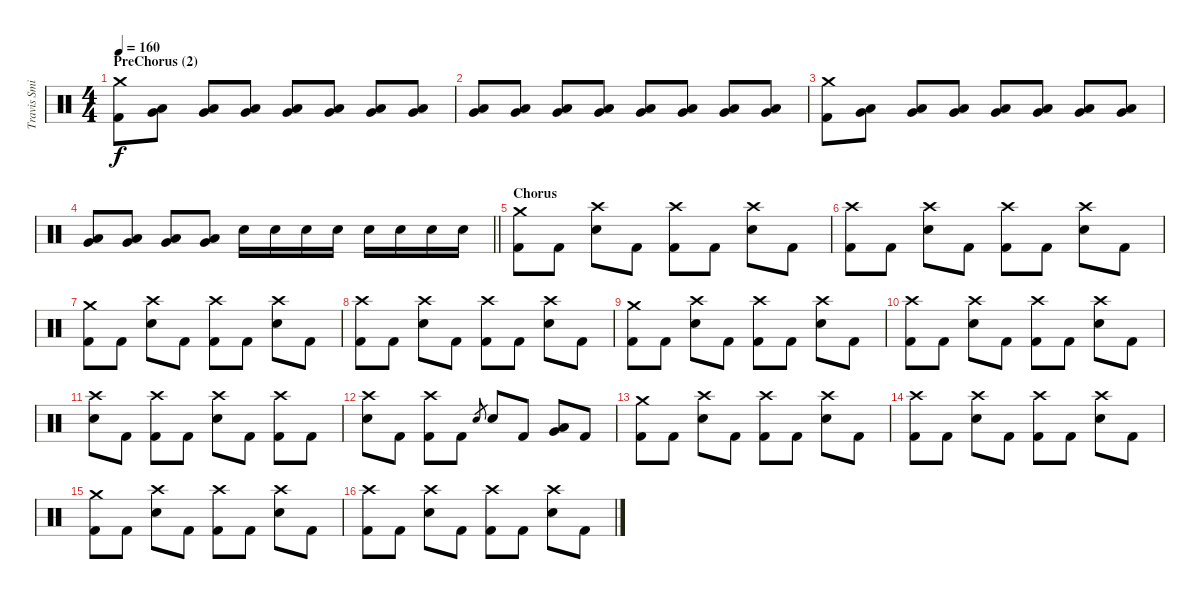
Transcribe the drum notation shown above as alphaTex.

\track ("Travis Smith" "Travis Smi") {instrument percussion}
\staff {score}
\articulation defaults
\ts (4 4)
\section ("" "PreChorus (2)")
\tempo 160
\clef neutral
\ks c
("Crash medium (hit)" "Kick (hit) 2").8{dy f} ("Low Tom (hit)" "Very Low Tom (hit)").8 ("Low Tom (hit)" "Very Low Tom (hit)").8 ("Low Tom (hit)" "Very Low Tom (hit)").8 ("Low Tom (hit)" "Very Low Tom (hit)").8 ("Low Tom (hit)" "Very Low Tom (hit)").8 ("Low Tom (hit)" "Very Low Tom (hit)").8 ("Low Tom (hit)" "Very Low Tom (hit)").8 |
("Low Tom (hit)" "Very Low Tom (hit)").8 ("Low Tom (hit)" "Very Low Tom (hit)").8 ("Low Tom (hit)" "Very Low Tom (hit)").8 ("Low Tom (hit)" "Very Low Tom (hit)").8 ("Low Tom (hit)" "Very Low Tom (hit)").8 ("Low Tom (hit)" "Very Low Tom (hit)").8 ("Low Tom (hit)" "Very Low Tom (hit)").8 ("Low Tom (hit)" "Very Low Tom (hit)").8 |
("Crash medium (hit)" "Kick (hit) 2").8 ("Low Tom (hit)" "Very Low Tom (hit)").8 ("Low Tom (hit)" "Very Low Tom (hit)").8 ("Low Tom (hit)" "Very Low Tom (hit)").8 ("Low Tom (hit)" "Very Low Tom (hit)").8 ("Low Tom (hit)" "Very Low Tom (hit)").8 ("Low Tom (hit)" "Very Low Tom (hit)").8 ("Low Tom (hit)" "Very Low Tom (hit)").8 |
\barLineRight lightlight
("Low Tom (hit)" "Very Low Tom (hit)").8 ("Low Tom (hit)" "Very Low Tom (hit)").8 ("Low Tom (hit)" "Very Low Tom (hit)").8 ("Low Tom (hit)" "Very Low Tom (hit)").8 "Electric Snare (hit)".16 "Electric Snare (hit)".16 "Electric Snare (hit)".16 "Electric Snare (hit)".16 "Electric Snare (hit)".16 "Electric Snare (hit)".16 "Electric Snare (hit)".16 "Electric Snare (hit)".16 |
\section ("" "Chorus")
("Crash medium (hit)" "Kick (hit) 2").8 "Kick (hit) 2".8 ("Crash high (hit)" "Electric Snare (hit)").8 "Kick (hit) 2".8 ("Crash high (hit)" "Kick (hit) 2").8 "Kick (hit) 2".8 ("Crash high (hit)" "Electric Snare (hit)").8 "Kick (hit) 2".8 |
("Crash high (hit)" "Kick (hit) 2").8 "Kick (hit) 2".8 ("Crash high (hit)" "Electric Snare (hit)").8 "Kick (hit) 2".8 ("Crash high (hit)" "Kick (hit) 2").8 "Kick (hit) 2".8 ("Crash high (hit)" "Electric Snare (hit)").8 "Kick (hit) 2".8 |
("Crash medium (hit)" "Kick (hit) 2").8 "Kick (hit) 2".8 ("Crash high (hit)" "Electric Snare (hit)").8 "Kick (hit) 2".8 ("Crash high (hit)" "Kick (hit) 2").8 "Kick (hit) 2".8 ("Crash high (hit)" "Electric Snare (hit)").8 "Kick (hit) 2".8 |
("Crash high (hit)" "Kick (hit) 2").8 "Kick (hit) 2".8 ("Crash high (hit)" "Electric Snare (hit)").8 "Kick (hit) 2".8 ("Crash high (hit)" "Kick (hit) 2").8 "Kick (hit) 2".8 ("Crash high (hit)" "Electric Snare (hit)").8 "Kick (hit) 2".8 |
("Crash medium (hit)" "Kick (hit) 2").8 "Kick (hit) 2".8 ("Crash high (hit)" "Electric Snare (hit)").8 "Kick (hit) 2".8 ("Crash high (hit)" "Kick (hit) 2").8 "Kick (hit) 2".8 ("Crash high (hit)" "Electric Snare (hit)").8 "Kick (hit) 2".8 |
("Crash high (hit)" "Kick (hit) 2").8 "Kick (hit) 2".8 ("Crash high (hit)" "Electric Snare (hit)").8 "Kick (hit) 2".8 ("Crash high (hit)" "Kick (hit) 2").8 "Kick (hit) 2".8 ("Crash high (hit)" "Electric Snare (hit)").8 "Kick (hit) 2".8 |
("Crash high (hit)" "Electric Snare (hit)").8 "Kick (hit) 2".8 ("Crash high (hit)" "Kick (hit) 2").8 "Kick (hit) 2".8 ("Crash high (hit)" "Electric Snare (hit)").8 "Kick (hit) 2".8 ("Crash high (hit)" "Kick (hit) 2").8 "Kick (hit) 2".8 |
("Crash high (hit)" "Electric Snare (hit)").8 "Kick (hit) 2".8 ("Crash high (hit)" "Kick (hit) 2").8 "Kick (hit) 2".8 "Electric Snare (hit)".8{gr} "Electric Snare (hit)".8 "Kick (hit) 2".8 ("Very Low Tom (hit)" "Low Floor Tom (hit)").8 "Kick (hit) 2".8 |
("Crash medium (hit)" "Kick (hit) 2").8 "Kick (hit) 2".8 ("Crash high (hit)" "Electric Snare (hit)").8 "Kick (hit) 2".8 ("Crash high (hit)" "Kick (hit) 2").8 "Kick (hit) 2".8 ("Crash high (hit)" "Electric Snare (hit)").8 "Kick (hit) 2".8 |
("Crash high (hit)" "Kick (hit) 2").8 "Kick (hit) 2".8 ("Crash high (hit)" "Electric Snare (hit)").8 "Kick (hit) 2".8 ("Crash high (hit)" "Kick (hit) 2").8 "Kick (hit) 2".8 ("Crash high (hit)" "Electric Snare (hit)").8 "Kick (hit) 2".8 |
("Crash medium (hit)" "Kick (hit) 2").8 "Kick (hit) 2".8 ("Crash high (hit)" "Electric Snare (hit)").8 "Kick (hit) 2".8 ("Crash high (hit)" "Kick (hit) 2").8 "Kick (hit) 2".8 ("Crash high (hit)" "Electric Snare (hit)").8 "Kick (hit) 2".8 |
("Crash high (hit)" "Kick (hit) 2").8 "Kick (hit) 2".8 ("Crash high (hit)" "Electric Snare (hit)").8 "Kick (hit) 2".8 ("Crash high (hit)" "Kick (hit) 2").8 "Kick (hit) 2".8 ("Crash high (hit)" "Electric Snare (hit)").8 "Kick (hit) 2".8
